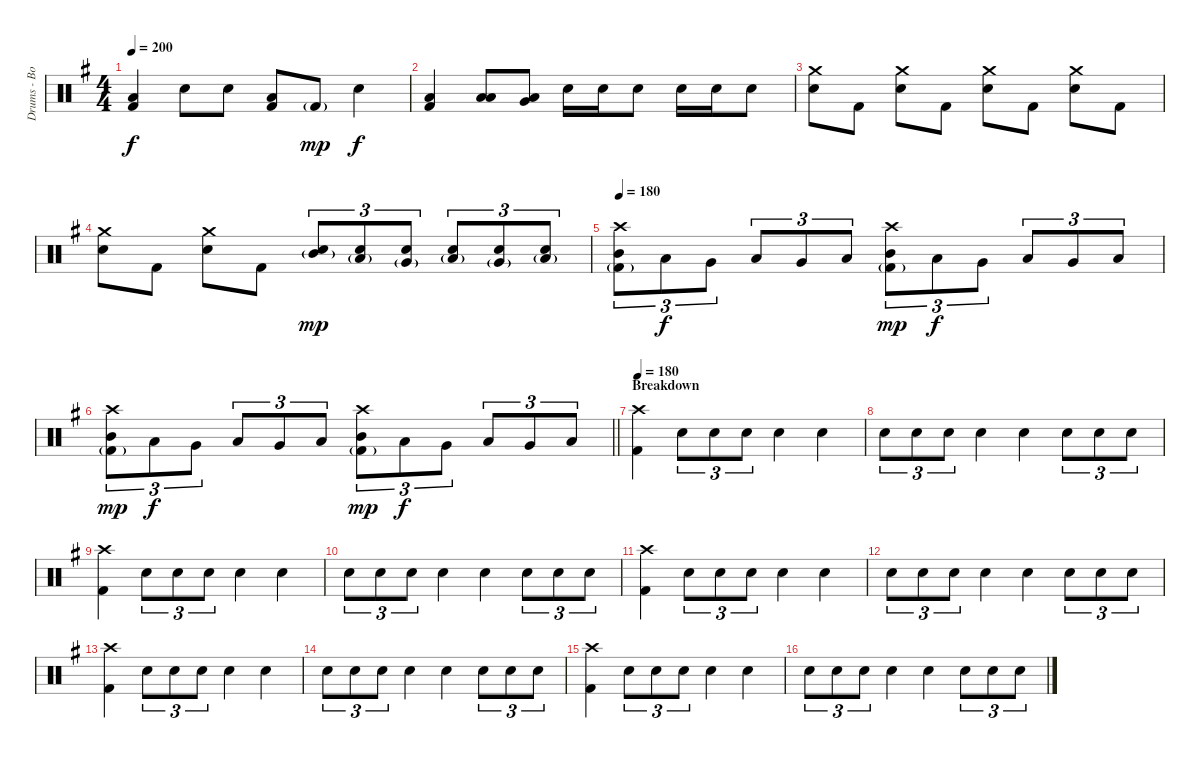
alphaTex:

\track ("Drums - Bob Bryar" "Drums - Bo") {instrument percussion}
\staff {score}
\articulation defaults
\ts (4 4)
\tempo 200
\clef neutral
\ks eminor
("Kick (hit) 2" "Low Floor Tom (hit)").4{dy f} "Electric Snare (hit)".8 "Electric Snare (hit)".8 ("Kick (hit) 2" "Low Floor Tom (hit)").8 "Kick (hit) 2"{g}.8{dy mp} "Electric Snare (hit)".4{dy f} |
("Kick (hit) 2" "Low Floor Tom (hit)").4 ("Low Tom (hit)" "Low Floor Tom (hit)").8 ("Very Low Tom (hit)" "Low Floor Tom (hit)").8 "Electric Snare (hit)".16 "Electric Snare (hit)".16 "Electric Snare (hit)".8 "Electric Snare (hit)".16 "Electric Snare (hit)".16 "Electric Snare (hit)".8 |
("Electric Snare (hit)" "Crash medium (hit)").8 "Kick (hit) 2".8 ("Electric Snare (hit)" "Crash medium (hit)").8 "Kick (hit) 2".8 ("Electric Snare (hit)" "Crash medium (hit)").8 "Kick (hit) 2".8 ("Electric Snare (hit)" "Crash medium (hit)").8 "Kick (hit) 2".8 |
("Electric Snare (hit)" "Crash medium (hit)").8 "Kick (hit) 2".8 ("Electric Snare (hit)" "Crash medium (hit)").8 "Kick (hit) 2".8 ("Electric Snare (hit)" "Mid Tom (hit)"{g}).8{tu (3 2) dy mp} ("Electric Snare (hit)" "Low Tom (hit)"{g}).8{tu (3 2)} ("Electric Snare (hit)" "Very Low Tom (hit)"{g}).8{tu (3 2)} ("Electric Snare (hit)" "Low Tom (hit)"{g}).8{tu (3 2)} ("Electric Snare (hit)" "Very Low Tom (hit)"{g}).8{tu (3 2)} ("Electric Snare (hit)" "Low Floor Tom (hit)"{g}).8{tu (3 2)} |
\tempo 180
("Mid Tom (hit)" "Crash high (hit)" "Kick (hit) 2"{g}).8{tu (3 2)} "Low Tom (hit)".8{tu (3 2) dy f} "Very Low Tom (hit)".8{tu (3 2)} "Low Tom (hit)".8{tu (3 2)} "Very Low Tom (hit)".8{tu (3 2)} "Low Floor Tom (hit)".8{tu (3 2)} ("Mid Tom (hit)" "Crash high (hit)" "Kick (hit) 2"{g}).8{tu (3 2) dy mp} "Low Tom (hit)".8{tu (3 2) dy f} "Very Low Tom (hit)".8{tu (3 2)} "Low Tom (hit)".8{tu (3 2)} "Very Low Tom (hit)".8{tu (3 2)} "Low Floor Tom (hit)".8{tu (3 2)} |
\barLineRight lightlight
("Mid Tom (hit)" "Crash high (hit)" "Kick (hit) 2"{g}).8{tu (3 2) dy mp} "Low Tom (hit)".8{tu (3 2) dy f} "Very Low Tom (hit)".8{tu (3 2)} "Low Tom (hit)".8{tu (3 2)} "Very Low Tom (hit)".8{tu (3 2)} "Low Floor Tom (hit)".8{tu (3 2)} ("Mid Tom (hit)" "Crash high (hit)" "Kick (hit) 2"{g}).8{tu (3 2) dy mp} "Low Tom (hit)".8{tu (3 2) dy f} "Very Low Tom (hit)".8{tu (3 2)} "Low Tom (hit)".8{tu (3 2)} "Very Low Tom (hit)".8{tu (3 2)} "Low Floor Tom (hit)".8{tu (3 2)} |
\section ("" "Breakdown")
\tempo 180
("Kick (hit) 2" "Crash high (hit)").4 "Electric Snare (hit)".8{tu (3 2)} "Electric Snare (hit)".8{tu (3 2)} "Electric Snare (hit)".8{tu (3 2)} "Electric Snare (hit)".4 "Electric Snare (hit)".4 |
"Electric Snare (hit)".8{tu (3 2)} "Electric Snare (hit)".8{tu (3 2)} "Electric Snare (hit)".8{tu (3 2)} "Electric Snare (hit)".4 "Electric Snare (hit)".4 "Electric Snare (hit)".8{tu (3 2)} "Electric Snare (hit)".8{tu (3 2)} "Electric Snare (hit)".8{tu (3 2)} |
("Kick (hit) 2" "Crash high (hit)").4 "Electric Snare (hit)".8{tu (3 2)} "Electric Snare (hit)".8{tu (3 2)} "Electric Snare (hit)".8{tu (3 2)} "Electric Snare (hit)".4 "Electric Snare (hit)".4 |
"Electric Snare (hit)".8{tu (3 2)} "Electric Snare (hit)".8{tu (3 2)} "Electric Snare (hit)".8{tu (3 2)} "Electric Snare (hit)".4 "Electric Snare (hit)".4 "Electric Snare (hit)".8{tu (3 2)} "Electric Snare (hit)".8{tu (3 2)} "Electric Snare (hit)".8{tu (3 2)} |
("Kick (hit) 2" "Crash high (hit)").4 "Electric Snare (hit)".8{tu (3 2)} "Electric Snare (hit)".8{tu (3 2)} "Electric Snare (hit)".8{tu (3 2)} "Electric Snare (hit)".4 "Electric Snare (hit)".4 |
"Electric Snare (hit)".8{tu (3 2)} "Electric Snare (hit)".8{tu (3 2)} "Electric Snare (hit)".8{tu (3 2)} "Electric Snare (hit)".4 "Electric Snare (hit)".4 "Electric Snare (hit)".8{tu (3 2)} "Electric Snare (hit)".8{tu (3 2)} "Electric Snare (hit)".8{tu (3 2)} |
("Kick (hit) 2" "Crash high (hit)").4 "Electric Snare (hit)".8{tu (3 2)} "Electric Snare (hit)".8{tu (3 2)} "Electric Snare (hit)".8{tu (3 2)} "Electric Snare (hit)".4 "Electric Snare (hit)".4 |
"Electric Snare (hit)".8{tu (3 2)} "Electric Snare (hit)".8{tu (3 2)} "Electric Snare (hit)".8{tu (3 2)} "Electric Snare (hit)".4 "Electric Snare (hit)".4 "Electric Snare (hit)".8{tu (3 2)} "Electric Snare (hit)".8{tu (3 2)} "Electric Snare (hit)".8{tu (3 2)} |
("Kick (hit) 2" "Crash high (hit)").4 "Electric Snare (hit)".8{tu (3 2)} "Electric Snare (hit)".8{tu (3 2)} "Electric Snare (hit)".8{tu (3 2)} "Electric Snare (hit)".4 "Electric Snare (hit)".4 |
"Electric Snare (hit)".8{tu (3 2)} "Electric Snare (hit)".8{tu (3 2)} "Electric Snare (hit)".8{tu (3 2)} "Electric Snare (hit)".4 "Electric Snare (hit)".4 "Electric Snare (hit)".8{tu (3 2)} "Electric Snare (hit)".8{tu (3 2)} "Electric Snare (hit)".8{tu (3 2)}
